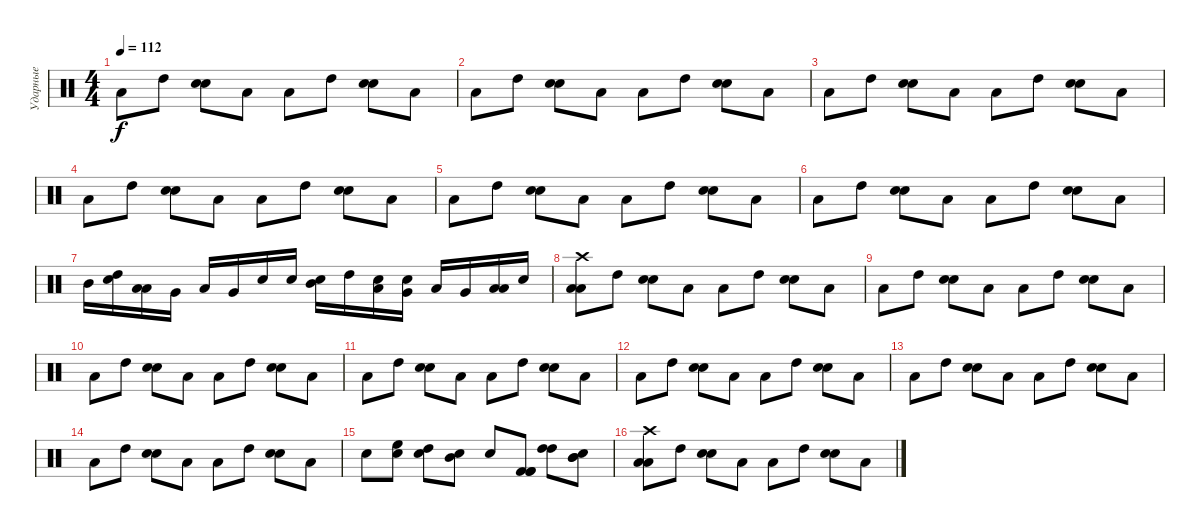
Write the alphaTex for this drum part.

\track ("Ударные" "Ударные") {instrument percussion}
\staff {score}
\articulation defaults
\ts (4 4)
\tempo 112
\clef neutral
\ks c "Low Tom (hit)".8{dy f} "High Tom (hit)".8
("Snare (hit) 2" "Snare (hit) 2").8 "Low Tom (hit)".8 "Low Tom (hit)".8 "High Tom (hit)".8 ("Snare (hit) 2" "Snare (hit) 2").8 "Low Tom (hit)".8 |
"Low Tom (hit)".8 "High Tom (hit)".8 ("Snare (hit) 2" "Snare (hit) 2").8 "Low Tom (hit)".8 "Low Tom (hit)".8 "High Tom (hit)".8 ("Snare (hit) 2" "Snare (hit) 2").8 "Low Tom (hit)".8 |
"Low Tom (hit)".8 "High Tom (hit)".8 ("Snare (hit) 2" "Snare (hit) 2").8 "Low Tom (hit)".8 "Low Tom (hit)".8 "High Tom (hit)".8 ("Snare (hit) 2" "Snare (hit) 2").8 "Low Tom (hit)".8 |
"Low Tom (hit)".8 "High Tom (hit)".8 ("Snare (hit) 2" "Snare (hit) 2").8 "Low Tom (hit)".8 "Low Tom (hit)".8 "High Tom (hit)".8 ("Snare (hit) 2" "Snare (hit) 2").8 "Low Tom (hit)".8 |
"Low Tom (hit)".8 "High Tom (hit)".8 ("Snare (hit) 2" "Snare (hit) 2").8 "Low Tom (hit)".8 "Low Tom (hit)".8 "High Tom (hit)".8 ("Snare (hit) 2" "Snare (hit) 2").8 "Low Tom (hit)".8 |
"Low Tom (hit)".8 "High Tom (hit)".8 ("Snare (hit) 2" "Snare (hit) 2").8 "Low Tom (hit)".8 "Low Tom (hit)".8 "High Tom (hit)".8 ("Snare (hit) 2" "Snare (hit) 2").8 "Low Tom (hit)".8 |
"Mid Tom (hit)".16 ("High Tom (hit)" "Snare (hit)").16 ("Low Tom (hit)" "Low Tom (hit)").16 "Very Low Tom (hit)".16 "Low Floor Tom (hit)".16 "Very Low Tom (hit)".16 "Snare (hit)".16 "Snare (hit)".16 ("Snare (hit)" "Mid Tom (hit)").16 "High Tom (hit)".16 ("Snare (hit)" "Low Tom (hit)").16 ("Very Low Tom (hit)" "Snare (hit)").16 "Low Floor Tom (hit)".16 "Very Low Tom (hit)".16 ("Low Tom (hit)" "Low Tom (hit)").16 "Snare (hit)".16 |
("Crash high (hit)" "Low Tom (hit)" "Low Tom (hit)").8 "High Tom (hit)".8 ("Snare (hit) 2" "Snare (hit) 2").8 "Low Tom (hit)".8 "Low Tom (hit)".8 "High Tom (hit)".8 ("Snare (hit) 2" "Snare (hit) 2").8 "Low Tom (hit)".8 |
"Low Tom (hit)".8 "High Tom (hit)".8 ("Snare (hit) 2" "Snare (hit) 2").8 "Low Tom (hit)".8 "Low Tom (hit)".8 "High Tom (hit)".8 ("Snare (hit) 2" "Snare (hit) 2").8 "Low Tom (hit)".8 |
"Low Tom (hit)".8 "High Tom (hit)".8 ("Snare (hit) 2" "Snare (hit) 2").8 "Low Tom (hit)".8 "Low Tom (hit)".8 "High Tom (hit)".8 ("Snare (hit) 2" "Snare (hit) 2").8 "Low Tom (hit)".8 |
"Low Tom (hit)".8 "High Tom (hit)".8 ("Snare (hit) 2" "Snare (hit) 2").8 "Low Tom (hit)".8 "Low Tom (hit)".8 "High Tom (hit)".8 ("Snare (hit) 2" "Snare (hit) 2").8 "Low Tom (hit)".8 |
"Low Tom (hit)".8 "High Tom (hit)".8 ("Snare (hit) 2" "Snare (hit) 2").8 "Low Tom (hit)".8 "Low Tom (hit)".8 "High Tom (hit)".8 ("Snare (hit) 2" "Snare (hit) 2").8 "Low Tom (hit)".8 |
"Low Tom (hit)".8 "High Tom (hit)".8 ("Snare (hit) 2" "Snare (hit) 2").8 "Low Tom (hit)".8 "Low Tom (hit)".8 "High Tom (hit)".8 ("Snare (hit) 2" "Snare (hit) 2").8 "Low Tom (hit)".8 |
"Low Tom (hit)".8 "High Tom (hit)".8 ("Snare (hit) 2" "Snare (hit) 2").8 "Low Tom (hit)".8 "Low Tom (hit)".8 "High Tom (hit)".8 ("Snare (hit) 2" "Snare (hit) 2").8 "Low Tom (hit)".8 |
"Snare (hit)".8 ("Snare (hit)" "High Floor Tom (hit)").8 ("Snare (hit)" "High Tom (hit)").8 ("Mid Tom (hit)" "Snare (hit)").8 "Snare (hit)".8 ("Kick (hit) 2" "Kick (hit) 2" "Kick (hit) 2").8 ("High Tom (hit)" "High Tom (hit)").8 ("Mid Tom (hit)" "Mid Tom (hit)" "Snare (hit)").8 |
("Crash high (hit)" "Low Tom (hit)" "Low Tom (hit)").8 "High Tom (hit)".8 ("Snare (hit) 2" "Snare (hit) 2").8 "Low Tom (hit)".8 "Low Tom (hit)".8 "High Tom (hit)".8 ("Snare (hit) 2" "Snare (hit) 2").8 "Low Tom (hit)".8
